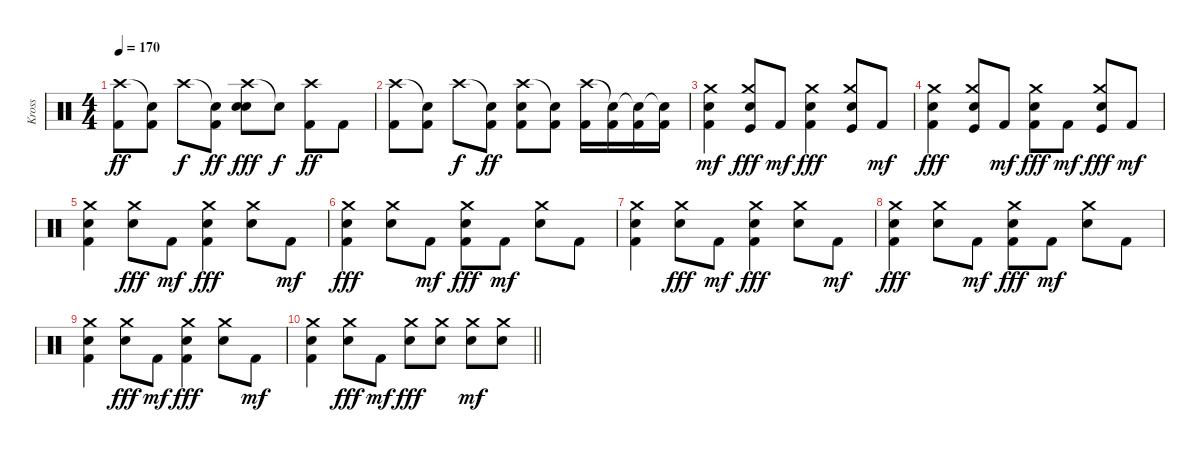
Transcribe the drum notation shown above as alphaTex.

\track ("Kross" "Kross") {instrument percussion}
\staff {score}
\articulation defaults
\ts (4 4)
\tempo 170
\clef neutral
\ks c
("Crash high (hit)" "Kick (hit) 2").8{dy ff} ("Snare (hit)"{t} "Kick (hit) 2").8 "Crash high (hit)".8{dy f} ("Snare (hit)"{t} "Kick (hit) 2").8{dy ff} ("Crash high (hit)" "Electric Snare (hit)" "Snare (hit) 2").8{dy fff} "Snare (hit)"{t}.8{dy f} ("Crash high (hit)" "Kick (hit) 2").8{dy ff} "Kick (hit) 2".8 |
("Crash high (hit)" "Kick (hit) 2").8 ("Snare (hit)"{t} "Kick (hit) 2").8 "Crash high (hit)".8{dy f} ("Snare (hit)"{t} "Kick (hit) 2").8{dy ff} ("Crash high (hit)" "Electric Snare (hit)" "Kick (hit) 2").8 ("Snare (hit)"{t} "Kick (hit) 2").8 ("Crash high (hit)" "Kick (hit) 2").16 ("Snare (hit)"{t} "Kick (hit) 2").16 ("Snare (hit)"{t} "Kick (hit) 2").16 ("Snare (hit)"{t} "Kick (hit) 2").16 |
("Crash medium (hit)" "Electric Snare (hit)" "Kick (hit) 2").4{dy mf} ("Crash medium (hit)" "Electric Snare (hit)" "Kick (hit)").8{dy fff} "Kick (hit) 2".8{dy mf} ("Crash medium (hit)" "Electric Snare (hit)" "Kick (hit) 2").4{dy fff} ("Crash medium (hit)" "Electric Snare (hit)" "Kick (hit)").8 "Kick (hit) 2".8{dy mf} |
("Crash medium (hit)" "Electric Snare (hit)" "Kick (hit) 2").4{dy fff} ("Crash medium (hit)" "Electric Snare (hit)" "Kick (hit)").8 "Kick (hit) 2".8{dy mf} ("Crash medium (hit)" "Electric Snare (hit)" "Kick (hit) 2").8{dy fff} "Kick (hit) 2".8{dy mf} ("Crash medium (hit)" "Electric Snare (hit)" "Kick (hit)").8{dy fff} "Kick (hit) 2".8{dy mf} |
("Crash medium (hit)" "Electric Snare (hit)" "Kick (hit) 2").4 ("Crash medium (hit)" "Electric Snare (hit)").8{dy fff} "Kick (hit) 2".8{dy mf} ("Crash medium (hit)" "Electric Snare (hit)" "Kick (hit) 2").4{dy fff} ("Crash medium (hit)" "Electric Snare (hit)").8 "Kick (hit) 2".8{dy mf} |
("Crash medium (hit)" "Electric Snare (hit)" "Kick (hit) 2").4{dy fff} ("Crash medium (hit)" "Electric Snare (hit)").8 "Kick (hit) 2".8{dy mf} ("Crash medium (hit)" "Electric Snare (hit)" "Kick (hit) 2").8{dy fff} "Kick (hit) 2".8{dy mf} ("Crash medium (hit)" "Electric Snare (hit)").8 "Kick (hit) 2".8 |
("Crash medium (hit)" "Electric Snare (hit)" "Kick (hit) 2").4 ("Crash medium (hit)" "Electric Snare (hit)").8{dy fff} "Kick (hit) 2".8{dy mf} ("Crash medium (hit)" "Electric Snare (hit)" "Kick (hit) 2").4{dy fff} ("Crash medium (hit)" "Electric Snare (hit)").8 "Kick (hit) 2".8{dy mf} |
("Crash medium (hit)" "Electric Snare (hit)" "Kick (hit) 2").4{dy fff} ("Crash medium (hit)" "Electric Snare (hit)").8 "Kick (hit) 2".8{dy mf} ("Crash medium (hit)" "Electric Snare (hit)" "Kick (hit) 2").8{dy fff} "Kick (hit) 2".8{dy mf} ("Crash medium (hit)" "Electric Snare (hit)").8 "Kick (hit) 2".8 |
("Crash medium (hit)" "Electric Snare (hit)" "Kick (hit) 2").4 ("Crash medium (hit)" "Electric Snare (hit)").8{dy fff} "Kick (hit) 2".8{dy mf} ("Crash medium (hit)" "Electric Snare (hit)" "Kick (hit) 2").4{dy fff} ("Crash medium (hit)" "Electric Snare (hit)").8 "Kick (hit) 2".8{dy mf} |
\barLineRight lightlight
("Crash medium (hit)" "Electric Snare (hit)" "Kick (hit) 2").4 ("Crash medium (hit)" "Electric Snare (hit)").8{dy fff} "Kick (hit) 2".8{dy mf} ("Crash medium (hit)" "Electric Snare (hit)").8{dy fff} ("Crash medium (hit)" "Electric Snare (hit)").8 ("Crash medium (hit)" "Electric Snare (hit)").8{dy mf} ("Crash medium (hit)" "Electric Snare (hit)").8
